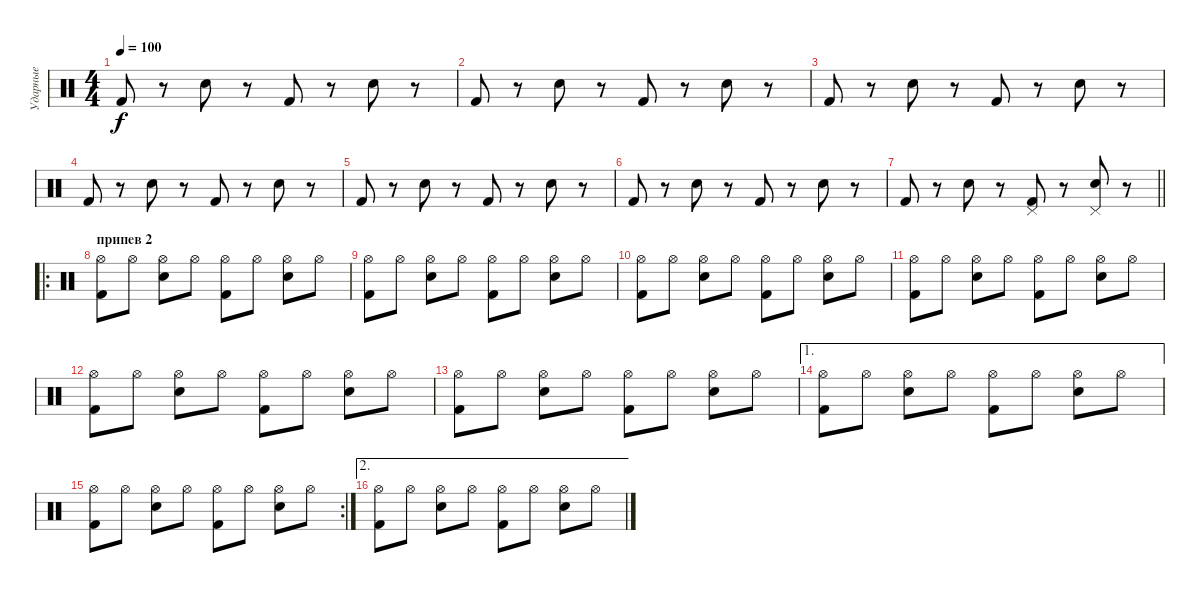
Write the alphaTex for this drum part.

\track ("Ударные" "Ударные") {instrument percussion}
\staff {score}
\articulation defaults
\ts (4 4)
\tempo 100
\clef neutral
\ks c "Kick (hit) 2".8{dy f}
r.8 "Hand Clap (hit)".8 r.8 "Kick (hit) 2".8 r.8 "Hand Clap (hit)".8 r.8 |
"Kick (hit) 2".8 r.8 "Hand Clap (hit)".8 r.8 "Kick (hit) 2".8 r.8 "Hand Clap (hit)".8 r.8 |
"Kick (hit) 2".8 r.8 "Hand Clap (hit)".8 r.8 "Kick (hit) 2".8 r.8 "Hand Clap (hit)".8 r.8 |
"Kick (hit) 2".8 r.8 "Hand Clap (hit)".8 r.8 "Kick (hit) 2".8 r.8 "Hand Clap (hit)".8 r.8 |
"Kick (hit) 2".8 r.8 "Hand Clap (hit)".8 r.8 "Kick (hit) 2".8 r.8 "Hand Clap (hit)".8 r.8 |
"Kick (hit) 2".8 r.8 "Hand Clap (hit)".8 r.8 "Kick (hit) 2".8 r.8 "Hand Clap (hit)".8 r.8 |
\barLineRight lightlight "Kick (hit) 2".8
r.8 "Hand Clap (hit)".8 r.8 ("Pedal Hi-Hat (hit)" "Kick (hit) 2").8 r.8 ("Pedal Hi-Hat (hit)" "Hand Clap (hit)").8 r.8 |
\ro
\section ("" "припев 2")
("Hi-Hat (open)" "Kick (hit) 2").8 "Hi-Hat (open)".8 ("Hi-Hat (open)" "Snare (hit) 2").8 "Hi-Hat (open)".8 ("Hi-Hat (open)" "Kick (hit) 2").8 "Hi-Hat (open)".8 ("Hi-Hat (open)" "Snare (hit) 2").8 "Hi-Hat (open)".8 |
("Hi-Hat (open)" "Kick (hit) 2").8 "Hi-Hat (open)".8 ("Hi-Hat (open)" "Snare (hit) 2").8 "Hi-Hat (open)".8 ("Hi-Hat (open)" "Kick (hit) 2").8 "Hi-Hat (open)".8 ("Hi-Hat (open)" "Snare (hit) 2").8 "Hi-Hat (open)".8 |
("Hi-Hat (open)" "Kick (hit) 2").8 "Hi-Hat (open)".8 ("Hi-Hat (open)" "Snare (hit) 2").8 "Hi-Hat (open)".8 ("Hi-Hat (open)" "Kick (hit) 2").8 "Hi-Hat (open)".8 ("Hi-Hat (open)" "Snare (hit) 2").8 "Hi-Hat (open)".8 |
("Hi-Hat (open)" "Kick (hit) 2").8 "Hi-Hat (open)".8 ("Hi-Hat (open)" "Snare (hit) 2").8 "Hi-Hat (open)".8 ("Hi-Hat (open)" "Kick (hit) 2").8 "Hi-Hat (open)".8 ("Hi-Hat (open)" "Snare (hit) 2").8 "Hi-Hat (open)".8 |
("Hi-Hat (open)" "Kick (hit) 2").8 "Hi-Hat (open)".8 ("Hi-Hat (open)" "Snare (hit) 2").8 "Hi-Hat (open)".8 ("Hi-Hat (open)" "Kick (hit) 2").8 "Hi-Hat (open)".8 ("Hi-Hat (open)" "Snare (hit) 2").8 "Hi-Hat (open)".8 |
("Hi-Hat (open)" "Kick (hit) 2").8 "Hi-Hat (open)".8 ("Hi-Hat (open)" "Snare (hit) 2").8 "Hi-Hat (open)".8 ("Hi-Hat (open)" "Kick (hit) 2").8 "Hi-Hat (open)".8 ("Hi-Hat (open)" "Snare (hit) 2").8 "Hi-Hat (open)".8 |
\ae 1
("Hi-Hat (open)" "Kick (hit) 2").8 "Hi-Hat (open)".8 ("Hi-Hat (open)" "Snare (hit) 2").8 "Hi-Hat (open)".8 ("Hi-Hat (open)" "Kick (hit) 2").8 "Hi-Hat (open)".8 ("Hi-Hat (open)" "Snare (hit) 2").8 "Hi-Hat (open)".8 |
\rc 2
("Hi-Hat (open)" "Kick (hit) 2").8 "Hi-Hat (open)".8 ("Hi-Hat (open)" "Snare (hit) 2").8 "Hi-Hat (open)".8 ("Hi-Hat (open)" "Kick (hit) 2").8 "Hi-Hat (open)".8 ("Hi-Hat (open)" "Snare (hit) 2").8 "Hi-Hat (open)".8 |
\ae 2
("Hi-Hat (open)" "Kick (hit) 2").8 "Hi-Hat (open)".8 ("Hi-Hat (open)" "Snare (hit) 2").8 "Hi-Hat (open)".8 ("Hi-Hat (open)" "Kick (hit) 2").8 "Hi-Hat (open)".8 ("Hi-Hat (open)" "Snare (hit) 2").8 "Hi-Hat (open)".8
